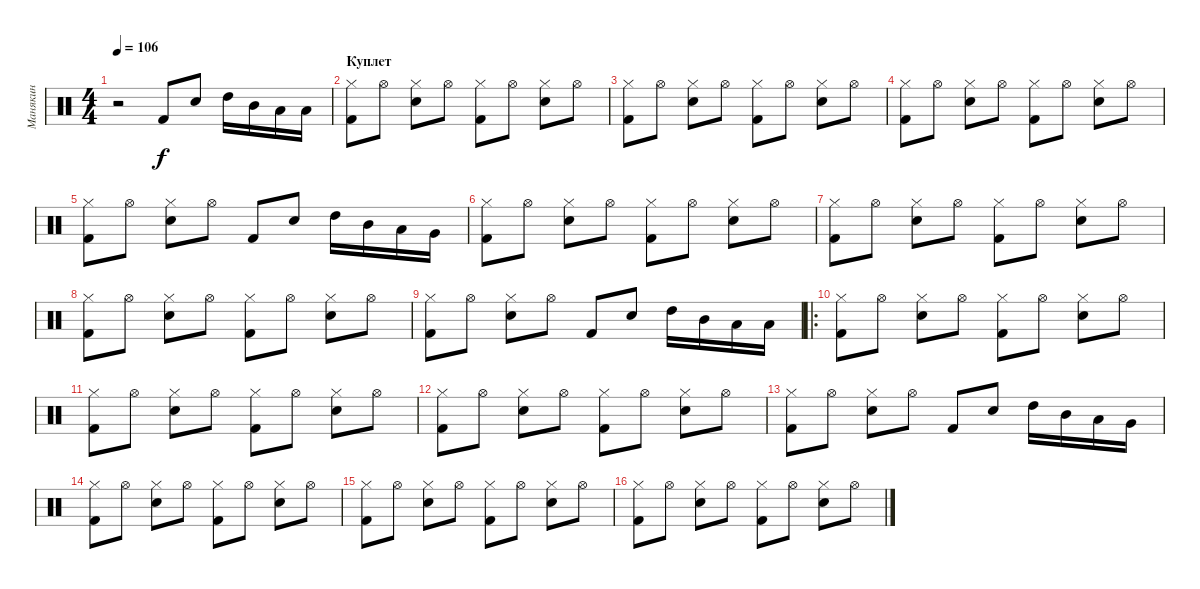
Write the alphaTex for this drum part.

\track ("Манякин" "Манякин") {instrument percussion}
\staff {score}
\articulation defaults
\ts (4 4)
\tempo 106
\clef neutral
\ks c
r.2{dy f} "Kick (hit) 2".8 "Electric Snare (hit)".8 "High Tom (hit)".16 "Mid Tom (hit)".16 "Low Tom (hit)".16 "Low Tom (hit)".16 |
\section ("" "Куплет")
("Hi-Hat (closed)" "Kick (hit) 2").8 "Hi-Hat (open)".8 ("Hi-Hat (closed)" "Electric Snare (hit)").8 "Hi-Hat (open)".8 ("Hi-Hat (closed)" "Kick (hit) 2").8 "Hi-Hat (open)".8 ("Hi-Hat (closed)" "Electric Snare (hit)").8 "Hi-Hat (open)".8 |
("Hi-Hat (closed)" "Kick (hit) 2").8 "Hi-Hat (open)".8 ("Hi-Hat (closed)" "Electric Snare (hit)").8 "Hi-Hat (open)".8 ("Hi-Hat (closed)" "Kick (hit) 2").8 "Hi-Hat (open)".8 ("Hi-Hat (closed)" "Electric Snare (hit)").8 "Hi-Hat (open)".8 |
("Hi-Hat (closed)" "Kick (hit) 2").8 "Hi-Hat (open)".8 ("Hi-Hat (closed)" "Electric Snare (hit)").8 "Hi-Hat (open)".8 ("Hi-Hat (closed)" "Kick (hit) 2").8 "Hi-Hat (open)".8 ("Hi-Hat (closed)" "Electric Snare (hit)").8 "Hi-Hat (open)".8 |
("Hi-Hat (closed)" "Kick (hit) 2").8 "Hi-Hat (open)".8 ("Hi-Hat (closed)" "Electric Snare (hit)").8 "Hi-Hat (open)".8 "Kick (hit) 2".8 "Electric Snare (hit)".8 "High Tom (hit)".16 "Mid Tom (hit)".16 "Low Tom (hit)".16 "Very Low Tom (hit)".16 |
("Hi-Hat (closed)" "Kick (hit) 2").8 "Hi-Hat (open)".8 ("Hi-Hat (closed)" "Electric Snare (hit)").8 "Hi-Hat (open)".8 ("Hi-Hat (closed)" "Kick (hit) 2").8 "Hi-Hat (open)".8 ("Hi-Hat (closed)" "Electric Snare (hit)").8 "Hi-Hat (open)".8 |
("Hi-Hat (closed)" "Kick (hit) 2").8 "Hi-Hat (open)".8 ("Hi-Hat (closed)" "Electric Snare (hit)").8 "Hi-Hat (open)".8 ("Hi-Hat (closed)" "Kick (hit) 2").8 "Hi-Hat (open)".8 ("Hi-Hat (closed)" "Electric Snare (hit)").8 "Hi-Hat (open)".8 |
("Hi-Hat (closed)" "Kick (hit) 2").8 "Hi-Hat (open)".8 ("Hi-Hat (closed)" "Electric Snare (hit)").8 "Hi-Hat (open)".8 ("Hi-Hat (closed)" "Kick (hit) 2").8 "Hi-Hat (open)".8 ("Hi-Hat (closed)" "Electric Snare (hit)").8 "Hi-Hat (open)".8 |
("Hi-Hat (closed)" "Kick (hit) 2").8 "Hi-Hat (open)".8 ("Hi-Hat (closed)" "Electric Snare (hit)").8 "Hi-Hat (open)".8 "Kick (hit) 2".8 "Electric Snare (hit)".8 "High Tom (hit)".16 "Mid Tom (hit)".16 "Low Tom (hit)".16 "Low Tom (hit)".16 |
\ro
("Hi-Hat (closed)" "Kick (hit) 2").8 "Hi-Hat (open)".8 ("Hi-Hat (closed)" "Electric Snare (hit)").8 "Hi-Hat (open)".8 ("Hi-Hat (closed)" "Kick (hit) 2").8 "Hi-Hat (open)".8 ("Hi-Hat (closed)" "Electric Snare (hit)").8 "Hi-Hat (open)".8 |
("Hi-Hat (closed)" "Kick (hit) 2").8 "Hi-Hat (open)".8 ("Hi-Hat (closed)" "Electric Snare (hit)").8 "Hi-Hat (open)".8 ("Hi-Hat (closed)" "Kick (hit) 2").8 "Hi-Hat (open)".8 ("Hi-Hat (closed)" "Electric Snare (hit)").8 "Hi-Hat (open)".8 |
("Hi-Hat (closed)" "Kick (hit) 2").8 "Hi-Hat (open)".8 ("Hi-Hat (closed)" "Electric Snare (hit)").8 "Hi-Hat (open)".8 ("Hi-Hat (closed)" "Kick (hit) 2").8 "Hi-Hat (open)".8 ("Hi-Hat (closed)" "Electric Snare (hit)").8 "Hi-Hat (open)".8 |
("Hi-Hat (closed)" "Kick (hit) 2").8 "Hi-Hat (open)".8 ("Hi-Hat (closed)" "Electric Snare (hit)").8 "Hi-Hat (open)".8 "Kick (hit) 2".8 "Electric Snare (hit)".8 "High Tom (hit)".16 "Mid Tom (hit)".16 "Low Tom (hit)".16 "Very Low Tom (hit)".16 |
("Hi-Hat (closed)" "Kick (hit) 2").8 "Hi-Hat (open)".8 ("Hi-Hat (closed)" "Electric Snare (hit)").8 "Hi-Hat (open)".8 ("Hi-Hat (closed)" "Kick (hit) 2").8 "Hi-Hat (open)".8 ("Hi-Hat (closed)" "Electric Snare (hit)").8 "Hi-Hat (open)".8 |
("Hi-Hat (closed)" "Kick (hit) 2").8 "Hi-Hat (open)".8 ("Hi-Hat (closed)" "Electric Snare (hit)").8 "Hi-Hat (open)".8 ("Hi-Hat (closed)" "Kick (hit) 2").8 "Hi-Hat (open)".8 ("Hi-Hat (closed)" "Electric Snare (hit)").8 "Hi-Hat (open)".8 |
("Hi-Hat (closed)" "Kick (hit) 2").8 "Hi-Hat (open)".8 ("Hi-Hat (closed)" "Electric Snare (hit)").8 "Hi-Hat (open)".8 ("Hi-Hat (closed)" "Kick (hit) 2").8 "Hi-Hat (open)".8 ("Hi-Hat (closed)" "Electric Snare (hit)").8 "Hi-Hat (open)".8
